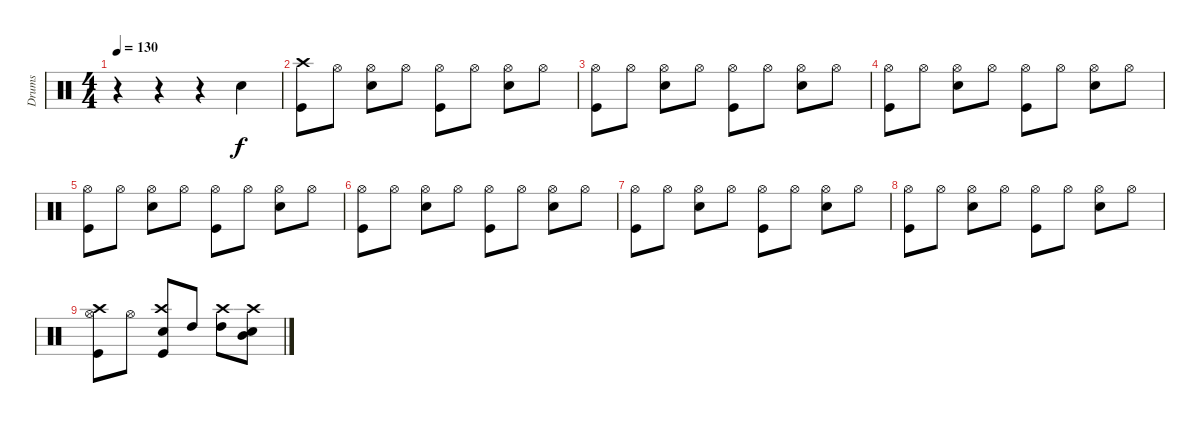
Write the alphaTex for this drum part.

\track ("Drums" "Drums") {instrument percussion}
\staff {score}
\articulation defaults
\ts (4 4)
\tempo 130
\clef neutral
\ks c
r.4{dy f} r.4 r.4 "Electric Snare (hit)".4 |
("Crash high (hit)" "Kick (hit)").8 "Hi-Hat (open)".8 ("Hi-Hat (open)" "Electric Snare (hit)").8 "Hi-Hat (open)".8 ("Hi-Hat (open)" "Kick (hit)").8 "Hi-Hat (open)".8 ("Hi-Hat (open)" "Electric Snare (hit)").8 "Hi-Hat (open)".8 |
("Hi-Hat (open)" "Kick (hit)").8 "Hi-Hat (open)".8 ("Hi-Hat (open)" "Electric Snare (hit)").8 "Hi-Hat (open)".8 ("Hi-Hat (open)" "Kick (hit)").8 "Hi-Hat (open)".8 ("Hi-Hat (open)" "Electric Snare (hit)").8 "Hi-Hat (open)".8 |
("Hi-Hat (open)" "Kick (hit)").8 "Hi-Hat (open)".8 ("Hi-Hat (open)" "Electric Snare (hit)").8 "Hi-Hat (open)".8 ("Hi-Hat (open)" "Kick (hit)").8 "Hi-Hat (open)".8 ("Hi-Hat (open)" "Electric Snare (hit)").8 "Hi-Hat (open)".8 |
("Hi-Hat (open)" "Kick (hit)").8 "Hi-Hat (open)".8 ("Hi-Hat (open)" "Electric Snare (hit)").8 "Hi-Hat (open)".8 ("Hi-Hat (open)" "Kick (hit)").8 "Hi-Hat (open)".8 ("Hi-Hat (open)" "Electric Snare (hit)").8 "Hi-Hat (open)".8 |
("Hi-Hat (open)" "Kick (hit)").8 "Hi-Hat (open)".8 ("Hi-Hat (open)" "Electric Snare (hit)").8 "Hi-Hat (open)".8 ("Hi-Hat (open)" "Kick (hit)").8 "Hi-Hat (open)".8 ("Hi-Hat (open)" "Electric Snare (hit)").8 "Hi-Hat (open)".8 |
("Hi-Hat (open)" "Kick (hit)").8 "Hi-Hat (open)".8 ("Hi-Hat (open)" "Electric Snare (hit)").8 "Hi-Hat (open)".8 ("Hi-Hat (open)" "Kick (hit)").8 "Hi-Hat (open)".8 ("Hi-Hat (open)" "Electric Snare (hit)").8 "Hi-Hat (open)".8 |
("Hi-Hat (open)" "Kick (hit)").8 "Hi-Hat (open)".8 ("Hi-Hat (open)" "Electric Snare (hit)").8 "Hi-Hat (open)".8 ("Hi-Hat (open)" "Kick (hit)").8 "Hi-Hat (open)".8 ("Hi-Hat (open)" "Electric Snare (hit)").8 "Hi-Hat (open)".8 |
("Hi-Hat (open)" "Kick (hit)" "Crash high (hit)").8 "Hi-Hat (open)".8 ("Kick (hit)" "Electric Snare (hit)" "Crash high (hit)").8 "High Tom (hit)".8 ("High Tom (hit)" "Crash high (hit)").8 ("Mid Tom (hit)" "Electric Snare (hit)" "Crash high (hit)").8
